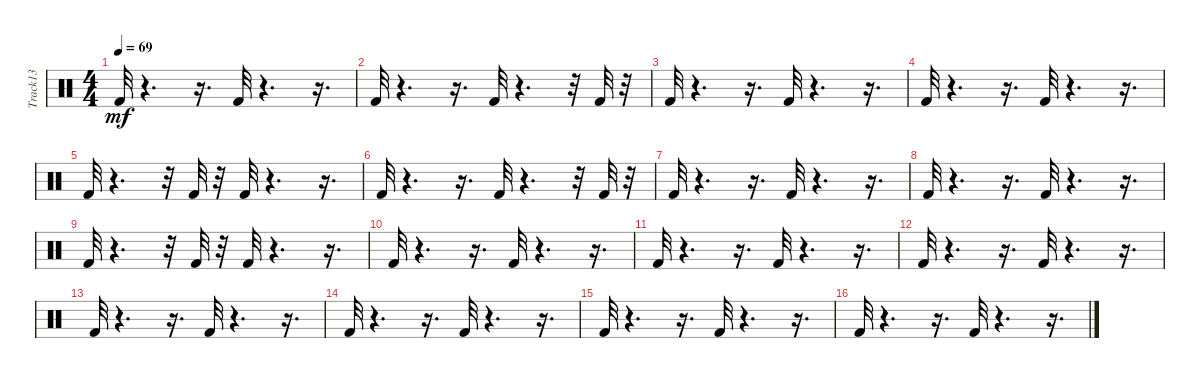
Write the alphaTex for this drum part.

\track ("Track13" "Track13") {instrument percussion}
\staff {score}
\articulation defaults
\ts (4 4)
\tempo 69
\clef neutral
\ks c "Kick (hit) 2".32{dy mf}
r.4{d} r.16{d} "Kick (hit) 2".32 r.4{d} r.16{d} |
"Kick (hit) 2".32 r.4{d} r.16{d} "Kick (hit) 2".32 r.4{d} r.32 "Kick (hit) 2".32 r.32 |
"Kick (hit) 2".32 r.4{d} r.16{d} "Kick (hit) 2".32 r.4{d} r.16{d} |
"Kick (hit) 2".32 r.4{d} r.16{d} "Kick (hit) 2".32 r.4{d} r.16{d} |
"Kick (hit) 2".32 r.4{d} r.32 "Kick (hit) 2".32 r.32 "Kick (hit) 2".32 r.4{d} r.16{d} |
"Kick (hit) 2".32 r.4{d} r.16{d} "Kick (hit) 2".32 r.4{d} r.32 "Kick (hit) 2".32 r.32 |
"Kick (hit) 2".32 r.4{d} r.16{d} "Kick (hit) 2".32 r.4{d} r.16{d} |
"Kick (hit) 2".32 r.4{d} r.16{d} "Kick (hit) 2".32 r.4{d} r.16{d} |
"Kick (hit) 2".32 r.4{d} r.32 "Kick (hit) 2".32 r.32 "Kick (hit) 2".32 r.4{d} r.16{d} |
"Kick (hit) 2".32 r.4{d} r.16{d} "Kick (hit) 2".32 r.4{d} r.16{d} |
"Kick (hit) 2".32 r.4{d} r.16{d} "Kick (hit) 2".32 r.4{d} r.16{d} |
"Kick (hit) 2".32 r.4{d} r.16{d} "Kick (hit) 2".32 r.4{d} r.16{d} |
"Kick (hit) 2".32 r.4{d} r.16{d} "Kick (hit) 2".32 r.4{d} r.16{d} |
"Kick (hit) 2".32 r.4{d} r.16{d} "Kick (hit) 2".32 r.4{d} r.16{d} |
"Kick (hit) 2".32 r.4{d} r.16{d} "Kick (hit) 2".32 r.4{d} r.16{d} |
"Kick (hit) 2".32 r.4{d} r.16{d} "Kick (hit) 2".32 r.4{d} r.16{d}
